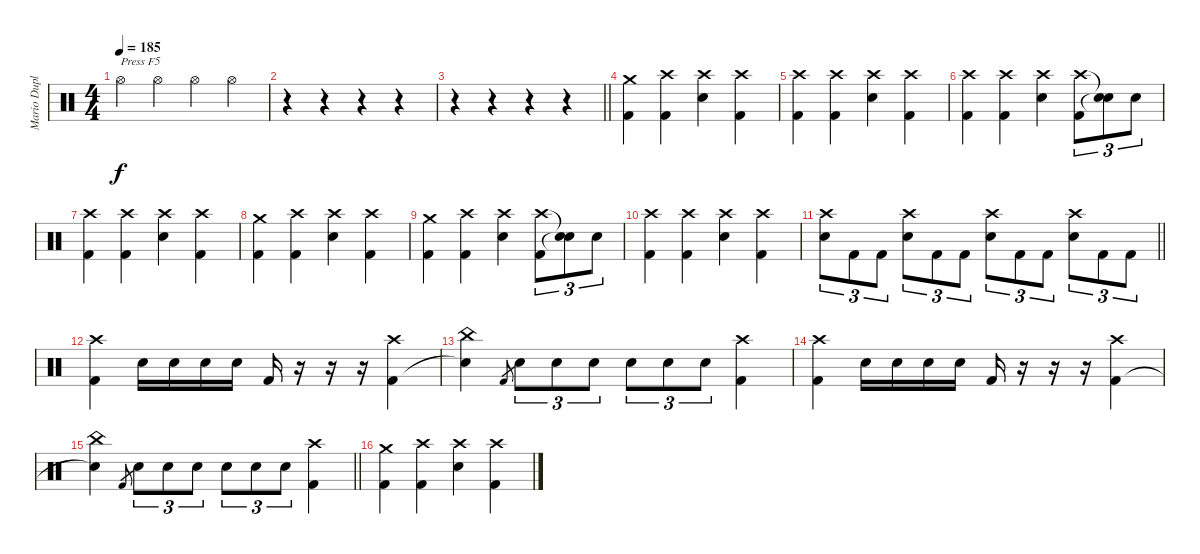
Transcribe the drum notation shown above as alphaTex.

\track ("Mario Duplantier" "Mario Dupl") {instrument percussion}
\staff {score}
\articulation defaults
\ts (4 4)
\tempo 185
\clef neutral
\ks c "Hi-Hat (open)".4{txt "Press F5" dy f} "Hi-Hat (open)".4 "Hi-Hat (open)".4 "Hi-Hat (open)".4
|
r.4 r.4 r.4 r.4 |
\barLineRight lightlight
r.4 r.4 r.4 r.4 |
("Crash medium (hit)" "Kick (hit) 2").4 ("Crash high (hit)" "Kick (hit) 2").4 ("Crash high (hit)" "Electric Snare (hit)").4 ("Crash high (hit)" "Kick (hit) 2").4 |
("Crash high (hit)" "Kick (hit) 2").4 ("Crash high (hit)" "Kick (hit) 2").4 ("Crash high (hit)" "Electric Snare (hit)").4 ("Crash high (hit)" "Kick (hit) 2").4 |
("Crash high (hit)" "Kick (hit) 2").4 ("Crash high (hit)" "Kick (hit) 2").4 ("Crash high (hit)" "Electric Snare (hit)").4 ("Crash high (hit)" "Kick (hit) 2").8{tu (3 2)} ("Snare (hit)"{t} "Snare (hit)"{t}).8{tu (3 2)} "Electric Snare (hit)".8{tu (3 2)} |
("Crash high (hit)" "Kick (hit) 2").4 ("Crash high (hit)" "Kick (hit) 2").4 ("Crash high (hit)" "Electric Snare (hit)").4 ("Crash high (hit)" "Kick (hit) 2").4 |
("Crash medium (hit)" "Kick (hit) 2").4 ("Crash high (hit)" "Kick (hit) 2").4 ("Crash high (hit)" "Electric Snare (hit)").4 ("Crash high (hit)" "Kick (hit) 2").4 |
("Crash medium (hit)" "Kick (hit) 2").4 ("Crash high (hit)" "Kick (hit) 2").4 ("Crash high (hit)" "Electric Snare (hit)").4 ("Crash high (hit)" "Kick (hit) 2").8{tu (3 2)} ("Snare (hit)"{t} "Snare (hit)"{t}).8{tu (3 2)} "Electric Snare (hit)".8{tu (3 2)} |
("Crash high (hit)" "Kick (hit) 2").4 ("Crash high (hit)" "Kick (hit) 2").4 ("Crash high (hit)" "Electric Snare (hit)").4 ("Crash high (hit)" "Kick (hit) 2").4 |
\barLineRight lightlight
("Crash high (hit)" "Electric Snare (hit)").8{tu (3 2)} "Kick (hit) 2".8{tu (3 2)} "Kick (hit) 2".8{tu (3 2)} ("Crash high (hit)" "Electric Snare (hit)").8{tu (3 2)} "Kick (hit) 2".8{tu (3 2)} "Kick (hit) 2".8{tu (3 2)} ("Crash high (hit)" "Electric Snare (hit)").8{tu (3 2)} "Kick (hit) 2".8{tu (3 2)} "Kick (hit) 2".8{tu (3 2)} ("Crash high (hit)" "Electric Snare (hit)").8{tu (3 2)} "Kick (hit) 2".8{tu (3 2)} "Kick (hit) 2".8{tu (3 2)} |
("Crash high (hit)" "Kick (hit) 2").4 "Electric Snare (hit)".16 "Electric Snare (hit)".16 "Electric Snare (hit)".16 "Electric Snare (hit)".16 "Kick (hit) 2".16 r.16 r.16 r.16 ("Crash high (hit)" "Kick (hit) 2").4 |
("China (hit)" "Snare (hit)"{t}).4 "Kick (hit) 2".8{gr} "Electric Snare (hit)".8{tu (3 2)} "Electric Snare (hit)".8{tu (3 2)} "Electric Snare (hit)".8{tu (3 2)} "Electric Snare (hit)".8{tu (3 2)} "Electric Snare (hit)".8{tu (3 2)} "Electric Snare (hit)".8{tu (3 2)} ("Crash high (hit)" "Kick (hit) 2").4 |
("Crash high (hit)" "Kick (hit) 2").4 "Electric Snare (hit)".16 "Electric Snare (hit)".16 "Electric Snare (hit)".16 "Electric Snare (hit)".16 "Kick (hit) 2".16 r.16 r.16 r.16 ("Crash high (hit)" "Kick (hit) 2").4 |
\barLineRight lightlight
("China (hit)" "Snare (hit)"{t}).4 "Kick (hit) 2".8{gr} "Electric Snare (hit)".8{tu (3 2)} "Electric Snare (hit)".8{tu (3 2)} "Electric Snare (hit)".8{tu (3 2)} "Electric Snare (hit)".8{tu (3 2)} "Electric Snare (hit)".8{tu (3 2)} "Electric Snare (hit)".8{tu (3 2)} ("Crash high (hit)" "Kick (hit) 2").4 |
("Crash medium (hit)" "Kick (hit) 2").4 ("Crash high (hit)" "Kick (hit) 2").4 ("Crash high (hit)" "Electric Snare (hit)").4 ("Crash high (hit)" "Kick (hit) 2").4
